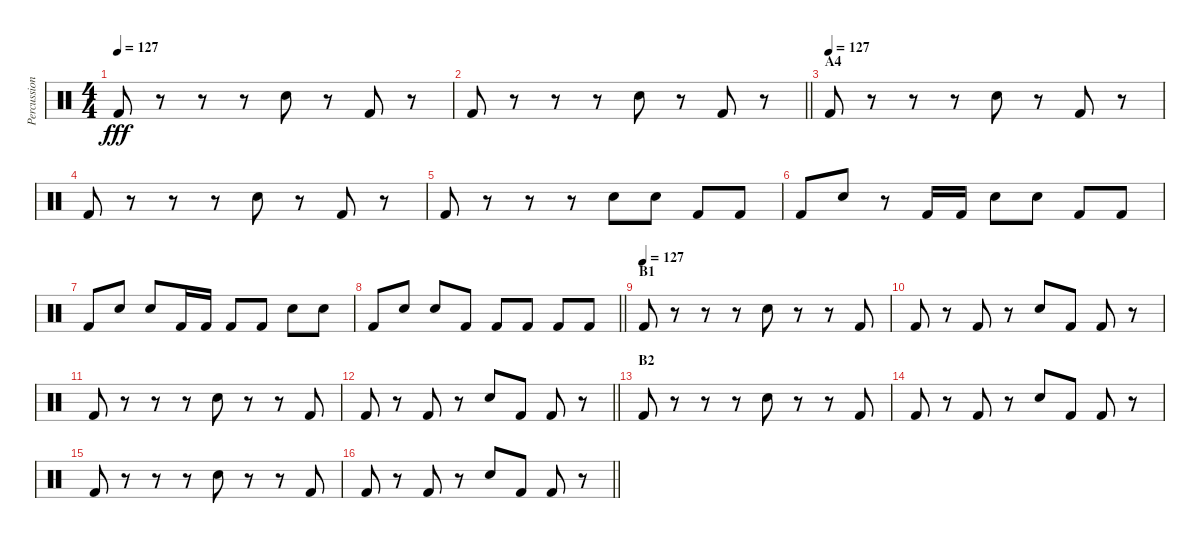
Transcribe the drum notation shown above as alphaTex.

\track ("Percussion" "Percussion") {instrument percussion}
\staff {score}
\articulation defaults
\ts (4 4)
\tempo 127
\clef neutral
\ks c "Kick (hit) 2".8{dy fff}
r.8 r.8 r.8 "Electric Snare (hit)".8 r.8 "Kick (hit) 2".8 r.8 |
\barLineRight lightlight "Kick (hit) 2".8
r.8 r.8 r.8 "Electric Snare (hit)".8 r.8 "Kick (hit) 2".8 r.8 |
\section ("" "A4")
\tempo (127)
"Kick (hit) 2".8 r.8 r.8 r.8 "Electric Snare (hit)".8 r.8 "Kick (hit) 2".8 r.8 |
"Kick (hit) 2".8 r.8 r.8 r.8 "Electric Snare (hit)".8 r.8 "Kick (hit) 2".8 r.8 |
"Kick (hit) 2".8 r.8 r.8 r.8 "Electric Snare (hit)".8 "Electric Snare (hit)".8 "Kick (hit) 2".8 "Kick (hit) 2".8 |
"Kick (hit) 2".8 "Electric Snare (hit)".8 r.8 "Kick (hit) 2".16 "Kick (hit) 2".16 "Electric Snare (hit)".8 "Electric Snare (hit)".8 "Kick (hit) 2".8 "Kick (hit) 2".8 |
"Kick (hit) 2".8 "Electric Snare (hit)".8 "Electric Snare (hit)".8 "Kick (hit) 2".16 "Kick (hit) 2".16 "Kick (hit) 2".8 "Kick (hit) 2".8 "Electric Snare (hit)".8 "Electric Snare (hit)".8 |
\barLineRight lightlight "Kick (hit) 2".8 "Electric Snare (hit)".8 "Electric Snare (hit)".8 "Kick (hit) 2".8 "Kick (hit) 2".8 "Kick (hit) 2".8 "Kick (hit) 2".8 "Kick (hit) 2".8
|
\section ("" "B1")
\tempo (127)
"Kick (hit) 2".8 r.8 r.8 r.8 "Electric Snare (hit)".8 r.8 r.8 "Kick (hit) 2".8 |
"Kick (hit) 2".8 r.8 "Kick (hit) 2".8 r.8 "Electric Snare (hit)".8 "Kick (hit) 2".8 "Kick (hit) 2".8 r.8 |
"Kick (hit) 2".8 r.8 r.8 r.8 "Electric Snare (hit)".8 r.8 r.8 "Kick (hit) 2".8 |
\barLineRight lightlight "Kick (hit) 2".8
r.8 "Kick (hit) 2".8 r.8 "Electric Snare (hit)".8 "Kick (hit) 2".8 "Kick (hit) 2".8 r.8 |
\section ("" "B2")
"Kick (hit) 2".8 r.8 r.8 r.8 "Electric Snare (hit)".8 r.8 r.8 "Kick (hit) 2".8 |
"Kick (hit) 2".8 r.8 "Kick (hit) 2".8 r.8 "Electric Snare (hit)".8 "Kick (hit) 2".8 "Kick (hit) 2".8 r.8 |
"Kick (hit) 2".8 r.8 r.8 r.8 "Electric Snare (hit)".8 r.8 r.8 "Kick (hit) 2".8 |
\barLineRight lightlight "Kick (hit) 2".8
r.8 "Kick (hit) 2".8 r.8 "Electric Snare (hit)".8 "Kick (hit) 2".8 "Kick (hit) 2".8 r.8
